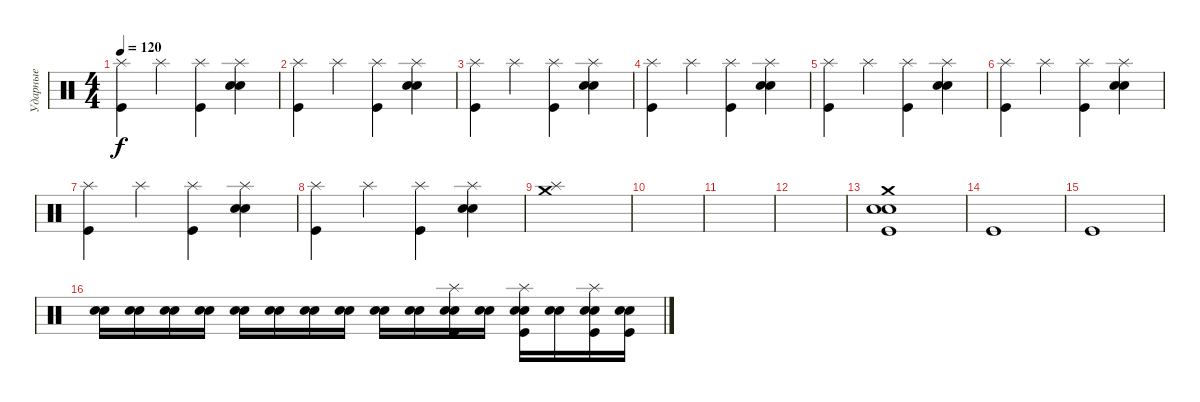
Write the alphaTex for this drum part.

\track ("Ударные" "Ударные") {instrument percussion}
\staff {score}
\articulation defaults
\ts (4 4)
\tempo 120
\clef neutral
\ks c
("Splash (hit)" "Kick (hit)").4{dy f} "Splash (hit)".4 ("Splash (hit)" "Kick (hit)").4 ("Splash (hit)" "Snare (hit) 2" "Snare (hit) 2").4 |
("Splash (hit)" "Kick (hit)").4 "Splash (hit)".4 ("Splash (hit)" "Kick (hit)").4 ("Splash (hit)" "Snare (hit) 2" "Snare (hit) 2").4 |
("Splash (hit)" "Kick (hit)").4 "Splash (hit)".4 ("Splash (hit)" "Kick (hit)").4 ("Splash (hit)" "Snare (hit) 2" "Snare (hit) 2").4 |
("Splash (hit)" "Kick (hit)").4 "Splash (hit)".4 ("Splash (hit)" "Kick (hit)").4 ("Splash (hit)" "Snare (hit) 2" "Snare (hit) 2").4 |
("Splash (hit)" "Kick (hit)").4 "Splash (hit)".4 ("Splash (hit)" "Kick (hit)").4 ("Splash (hit)" "Snare (hit) 2" "Snare (hit) 2").4 |
("Splash (hit)" "Kick (hit)").4 "Splash (hit)".4 ("Splash (hit)" "Kick (hit)").4 ("Splash (hit)" "Snare (hit) 2" "Snare (hit) 2").4 |
("Splash (hit)" "Kick (hit)").4 "Splash (hit)".4 ("Splash (hit)" "Kick (hit)").4 ("Splash (hit)" "Snare (hit) 2" "Snare (hit) 2").4 |
("Splash (hit)" "Kick (hit)").4 "Splash (hit)".4 ("Splash (hit)" "Kick (hit)").4 ("Splash (hit)" "Snare (hit) 2" "Snare (hit) 2").4 |
("Crash medium (hit)" "Splash (hit)").1 |
|
|
|
("Crash medium (hit)" "Snare (hit) 2" "Snare (hit) 2" "Kick (hit)").1 |
"Kick (hit)".1 |
"Kick (hit)".1 |
("Snare (hit) 2" "Snare (hit) 2").16 ("Snare (hit) 2" "Snare (hit) 2").16 ("Snare (hit) 2" "Snare (hit) 2").16 ("Snare (hit) 2" "Snare (hit) 2").16 ("Snare (hit) 2" "Snare (hit) 2").16 ("Snare (hit) 2" "Snare (hit) 2").16 ("Snare (hit) 2" "Snare (hit) 2").16 ("Snare (hit) 2" "Snare (hit) 2").16 ("Snare (hit) 2" "Snare (hit) 2").16 ("Snare (hit) 2" "Snare (hit) 2").16 ("Splash (hit)" "Snare (hit) 2" "Snare (hit) 2" "Kick (hit)").16 ("Snare (hit) 2" "Snare (hit) 2").16 ("Splash (hit)" "Snare (hit) 2" "Snare (hit) 2" "Kick (hit)").16 ("Snare (hit) 2" "Snare (hit) 2").16 ("Splash (hit)" "Snare (hit) 2" "Snare (hit) 2" "Kick (hit)").16 ("Snare (hit) 2" "Snare (hit) 2" "Kick (hit)").16
